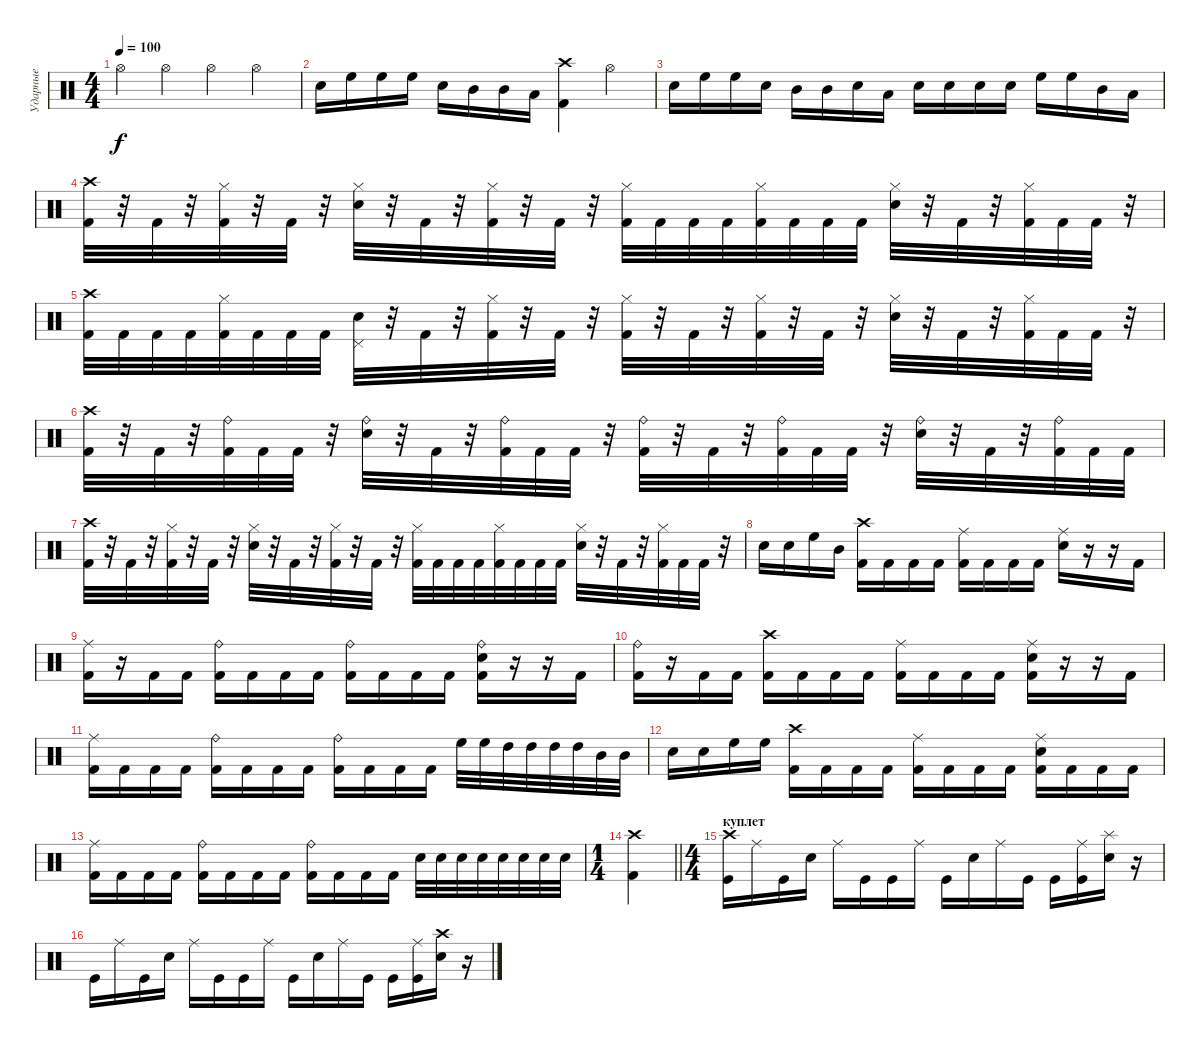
\track ("Ударные" "Ударные") {instrument percussion}
\staff {score}
\articulation defaults
\ts (4 4)
\tempo 100
\clef neutral
\ks c "Hi-Hat (open)".4{dy f} "Hi-Hat (open)".4 "Hi-Hat (open)".4 "Hi-Hat (open)".4
|
"Snare (hit) 2".16 "High Floor Tom (hit)".16 "High Floor Tom (hit)".16 "High Floor Tom (hit)".16 "Snare (hit) 2".16 "Mid Tom (hit)".16 "Mid Tom (hit)".16 "Low Tom (hit)".16 ("Crash high (hit)" "Kick (hit) 2").4 "Hi-Hat (open)".4 |
"Snare (hit) 2".16 "High Floor Tom (hit)".16 "High Floor Tom (hit)".16 "Snare (hit) 2".16 "Mid Tom (hit)".16 "Mid Tom (hit)".16 "Snare (hit) 2".16 "Low Tom (hit)".16 "Snare (hit) 2".16 "Snare (hit) 2".16 "Snare (hit) 2".16 "Snare (hit) 2".16 "High Floor Tom (hit)".16 "High Floor Tom (hit)".16 "Mid Tom (hit)".16 "Low Tom (hit)".16 |
("Crash high (hit)" "Kick (hit) 2").32 r.32 "Kick (hit) 2".32 r.32 ("Hi-Hat (closed)" "Kick (hit) 2").32 r.32 "Kick (hit) 2".32 r.32 ("Hi-Hat (closed)" "Snare (hit) 2").32 r.32 "Kick (hit) 2".32 r.32 ("Hi-Hat (closed)" "Kick (hit) 2").32 r.32 "Kick (hit) 2".32 r.32 ("Hi-Hat (closed)" "Kick (hit) 2").32 "Kick (hit) 2".32 "Kick (hit) 2".32 "Kick (hit) 2".32 ("Hi-Hat (closed)" "Kick (hit) 2").32 "Kick (hit) 2".32 "Kick (hit) 2".32 "Kick (hit) 2".32 ("Hi-Hat (closed)" "Snare (hit) 2").32 r.32 "Kick (hit) 2".32 r.32 ("Hi-Hat (closed)" "Kick (hit) 2").32 "Kick (hit) 2".32 "Kick (hit) 2".32 r.32 |
("Crash high (hit)" "Kick (hit) 2").32 "Kick (hit) 2".32 "Kick (hit) 2".32 "Kick (hit) 2".32 ("Hi-Hat (closed)" "Kick (hit) 2").32 "Kick (hit) 2".32 "Kick (hit) 2".32 "Kick (hit) 2".32 ("Pedal Hi-Hat (hit)" "Snare (hit) 2").32 r.32 "Kick (hit) 2".32 r.32 ("Hi-Hat (closed)" "Kick (hit) 2").32 r.32 "Kick (hit) 2".32 r.32 ("Hi-Hat (closed)" "Kick (hit) 2").32 r.32 "Kick (hit) 2".32 r.32 ("Hi-Hat (closed)" "Kick (hit) 2").32 r.32 "Kick (hit) 2".32 r.32 ("Hi-Hat (closed)" "Snare (hit) 2").32 r.32 "Kick (hit) 2".32 r.32 ("Hi-Hat (closed)" "Kick (hit) 2").32 "Kick (hit) 2".32 "Kick (hit) 2".32 r.32 |
("Crash high (hit)" "Kick (hit) 2").32 r.32 "Kick (hit) 2".32 r.32 ("Ride (bell)" "Kick (hit) 2").32 "Kick (hit) 2".32 "Kick (hit) 2".32 r.32 ("Ride (bell)" "Snare (hit) 2").32 r.32 "Kick (hit) 2".32 r.32 ("Ride (bell)" "Kick (hit) 2").32 "Kick (hit) 2".32 "Kick (hit) 2".32 r.32 ("Ride (bell)" "Kick (hit) 2").32 r.32 "Kick (hit) 2".32 r.32 ("Ride (bell)" "Kick (hit) 2").32 "Kick (hit) 2".32 "Kick (hit) 2".32 r.32 ("Ride (bell)" "Snare (hit) 2").32 r.32 "Kick (hit) 2".32 r.32 ("Ride (bell)" "Kick (hit) 2").32 "Kick (hit) 2".32 "Kick (hit) 2".32 |
("Crash high (hit)" "Kick (hit) 2").32 r.32 "Kick (hit) 2".32 r.32 ("Hi-Hat (closed)" "Kick (hit) 2").32 r.32 "Kick (hit) 2".32 r.32 ("Hi-Hat (closed)" "Snare (hit) 2").32 r.32 "Kick (hit) 2".32 r.32 ("Hi-Hat (closed)" "Kick (hit) 2").32 r.32 "Kick (hit) 2".32 r.32 ("Hi-Hat (closed)" "Kick (hit) 2").32 "Kick (hit) 2".32 "Kick (hit) 2".32 "Kick (hit) 2".32 ("Hi-Hat (closed)" "Kick (hit) 2").32 "Kick (hit) 2".32 "Kick (hit) 2".32 "Kick (hit) 2".32 ("Hi-Hat (closed)" "Snare (hit) 2").32 r.32 "Kick (hit) 2".32 r.32 ("Hi-Hat (closed)" "Kick (hit) 2").32 "Kick (hit) 2".32 "Kick (hit) 2".32 r.32 |
"Snare (hit) 2".16 "Snare (hit) 2".16 "High Floor Tom (hit)".16 "Mid Tom (hit)".16 ("Crash high (hit)" "Kick (hit) 2").16 "Kick (hit) 2".16 "Kick (hit) 2".16 "Kick (hit) 2".16 ("Ride (middle)" "Kick (hit) 2").16 "Kick (hit) 2".16 "Kick (hit) 2".16 "Kick (hit) 2".16 ("Ride (middle)" "Snare (hit) 2").16 r.16 r.16 "Kick (hit) 2".16 |
("Ride (middle)" "Kick (hit) 2").16 r.16 "Kick (hit) 2".16 "Kick (hit) 2".16 ("Ride (bell)" "Kick (hit) 2").16 "Kick (hit) 2".16 "Kick (hit) 2".16 "Kick (hit) 2".16 ("Ride (bell)" "Kick (hit) 2").16 "Kick (hit) 2".16 "Kick (hit) 2".16 "Kick (hit) 2".16 ("Ride (bell)" "Snare (hit) 2" "Kick (hit) 2").16 r.16 r.16 "Kick (hit) 2".16 |
("Ride (bell)" "Kick (hit) 2").16 r.16 "Kick (hit) 2".16 "Kick (hit) 2".16 ("Crash high (hit)" "Kick (hit) 2").16 "Kick (hit) 2".16 "Kick (hit) 2".16 "Kick (hit) 2".16 ("Ride (middle)" "Kick (hit) 2").16 "Kick (hit) 2".16 "Kick (hit) 2".16 "Kick (hit) 2".16 ("Ride (middle)" "Snare (hit) 2" "Kick (hit) 2").16 r.16 r.16 "Kick (hit) 2".16 |
("Ride (middle)" "Kick (hit) 2").16 "Kick (hit) 2".16 "Kick (hit) 2".16 "Kick (hit) 2".16 ("Ride (bell)" "Kick (hit) 2").16 "Kick (hit) 2".16 "Kick (hit) 2".16 "Kick (hit) 2".16 ("Ride (bell)" "Kick (hit) 2").16 "Kick (hit) 2".16 "Kick (hit) 2".16 "Kick (hit) 2".16 "High Floor Tom (hit)".32 "High Floor Tom (hit)".32 "High Tom (hit)".32 "High Tom (hit)".32 "High Tom (hit)".32 "High Tom (hit)".32 "Mid Tom (hit)".32 "Mid Tom (hit)".32 |
"Snare (hit) 2".16 "Snare (hit) 2".16 "High Floor Tom (hit)".16 "High Floor Tom (hit)".16 ("Crash high (hit)" "Kick (hit) 2").16 "Kick (hit) 2".16 "Kick (hit) 2".16 "Kick (hit) 2".16 ("Ride (middle)" "Kick (hit) 2").16 "Kick (hit) 2".16 "Kick (hit) 2".16 "Kick (hit) 2".16 ("Ride (middle)" "Snare (hit) 2" "Kick (hit) 2").16 "Kick (hit) 2".16 "Kick (hit) 2".16 "Kick (hit) 2".16 |
("Ride (middle)" "Kick (hit) 2").16 "Kick (hit) 2".16 "Kick (hit) 2".16 "Kick (hit) 2".16 ("Ride (bell)" "Kick (hit) 2").16 "Kick (hit) 2".16 "Kick (hit) 2".16 "Kick (hit) 2".16 ("Ride (bell)" "Kick (hit) 2").16 "Kick (hit) 2".16 "Kick (hit) 2".16 "Kick (hit) 2".16 "Snare (hit) 2".32 "Snare (hit) 2".32 "Snare (hit) 2".32 "Snare (hit) 2".32 "Snare (hit) 2".32 "Snare (hit) 2".32 "Snare (hit) 2".32 "Snare (hit) 2".32 |
\ts (1 4)
\barLineRight lightlight
("Crash high (hit)" "Kick (hit) 2").4 |
\ts (4 4)
\section ("" "куплет")
("Kick (hit)" "Crash high (hit)").16 "Ride (middle)".16 "Kick (hit)".16 "Snare (hit) 2".16 "Ride (middle)".16 "Kick (hit)".16 "Kick (hit)".16 "Ride (middle)".16 "Kick (hit)".16 "Snare (hit) 2".16 "Ride (middle)".16 "Kick (hit)".16 "Kick (hit)".16 ("Kick (hit)" "Ride (middle)").16 ("Snare (hit) 2" "Splash (hit)").16 r.16 |
"Kick (hit)".16 "Ride (middle)".16 "Kick (hit)".16 "Snare (hit) 2".16 "Ride (middle)".16 "Kick (hit)".16 "Kick (hit)".16 "Ride (middle)".16 "Kick (hit)".16 "Snare (hit) 2".16 "Ride (middle)".16 "Kick (hit)".16 "Kick (hit)".16 ("Kick (hit)" "Ride (middle)").16 ("Snare (hit) 2" "Crash high (hit)").16 r.16
